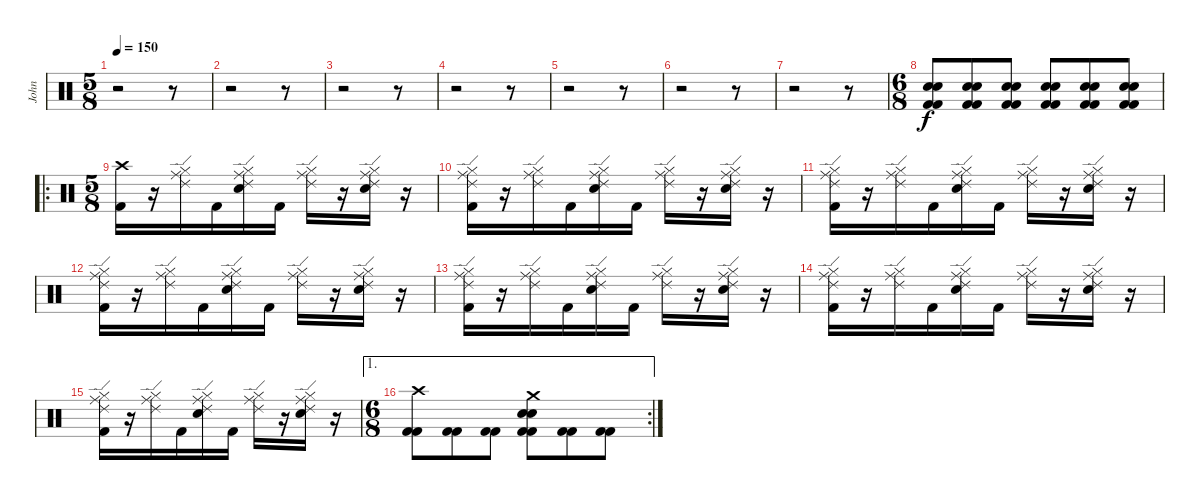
\track ("John" "John") {instrument percussion}
\staff {score}
\articulation defaults
\ts (5 8)
\tempo 150
\clef neutral
\ks c
r.2{dy f} r.8 |
r.2 r.8 |
r.2 r.8 |
r.2 r.8 |
r.2 r.8 |
r.2 r.8 |
r.2 r.8 |
\ts (6 8)
("Electric Snare (hit)" "Electric Snare (hit)" "Kick (hit) 2" "Kick (hit) 2").8 ("Electric Snare (hit)" "Electric Snare (hit)" "Kick (hit) 2" "Kick (hit) 2").8 ("Electric Snare (hit)" "Electric Snare (hit)" "Kick (hit) 2" "Kick (hit) 2").8 ("Electric Snare (hit)" "Electric Snare (hit)" "Kick (hit) 2" "Kick (hit) 2").8 ("Electric Snare (hit)" "Electric Snare (hit)" "Kick (hit) 2" "Kick (hit) 2").8 ("Electric Snare (hit)" "Electric Snare (hit)" "Kick (hit) 2" "Kick (hit) 2").8 |
\ro
\ts (5 8)
("Crash high (hit)" "Kick (hit) 2").16 r.16 ("Ride (middle)" "Ride (edge) 2" "Hi-Hat (closed)").16 "Kick (hit) 2".16 ("Ride (middle)" "Electric Snare (hit)" "Ride (edge) 2" "Hi-Hat (closed)").16 "Kick (hit) 2".16 ("Ride (middle)" "Ride (edge) 2" "Hi-Hat (closed)").16 r.16 ("Ride (middle)" "Electric Snare (hit)" "Ride (edge) 2" "Hi-Hat (closed)").16 r.16 |
("Ride (middle)" "Kick (hit) 2" "Ride (edge) 2" "Hi-Hat (closed)").16 r.16 ("Ride (middle)" "Ride (edge) 2" "Hi-Hat (closed)").16 "Kick (hit) 2".16 ("Ride (middle)" "Electric Snare (hit)" "Ride (edge) 2" "Hi-Hat (closed)").16 "Kick (hit) 2".16 ("Ride (middle)" "Ride (edge) 2" "Hi-Hat (closed)").16 r.16 ("Ride (middle)" "Electric Snare (hit)" "Ride (edge) 2" "Hi-Hat (closed)").16 r.16 |
("Ride (middle)" "Kick (hit) 2" "Ride (edge) 2" "Hi-Hat (closed)").16 r.16 ("Ride (middle)" "Ride (edge) 2" "Hi-Hat (closed)").16 "Kick (hit) 2".16 ("Ride (middle)" "Electric Snare (hit)" "Ride (edge) 2" "Hi-Hat (closed)").16 "Kick (hit) 2".16 ("Ride (middle)" "Ride (edge) 2" "Hi-Hat (closed)").16 r.16 ("Ride (middle)" "Electric Snare (hit)" "Ride (edge) 2" "Hi-Hat (closed)").16 r.16 |
("Ride (middle)" "Kick (hit) 2" "Ride (edge) 2" "Hi-Hat (closed)").16 r.16 ("Ride (middle)" "Ride (edge) 2" "Hi-Hat (closed)").16 "Kick (hit) 2".16 ("Ride (middle)" "Electric Snare (hit)" "Ride (edge) 2" "Hi-Hat (closed)").16 "Kick (hit) 2".16 ("Ride (middle)" "Ride (edge) 2" "Hi-Hat (closed)").16 r.16 ("Ride (middle)" "Electric Snare (hit)" "Ride (edge) 2" "Hi-Hat (closed)").16 r.16 |
("Ride (middle)" "Kick (hit) 2" "Ride (edge) 2" "Hi-Hat (closed)").16 r.16 ("Ride (middle)" "Ride (edge) 2" "Hi-Hat (closed)").16 "Kick (hit) 2".16 ("Ride (middle)" "Electric Snare (hit)" "Ride (edge) 2" "Hi-Hat (closed)").16 "Kick (hit) 2".16 ("Ride (middle)" "Ride (edge) 2" "Hi-Hat (closed)").16 r.16 ("Ride (middle)" "Electric Snare (hit)" "Ride (edge) 2" "Hi-Hat (closed)").16 r.16 |
("Ride (middle)" "Kick (hit) 2" "Ride (edge) 2" "Hi-Hat (closed)").16 r.16 ("Ride (middle)" "Ride (edge) 2" "Hi-Hat (closed)").16 "Kick (hit) 2".16 ("Ride (middle)" "Electric Snare (hit)" "Ride (edge) 2" "Hi-Hat (closed)").16 "Kick (hit) 2".16 ("Ride (middle)" "Ride (edge) 2" "Hi-Hat (closed)").16 r.16 ("Ride (middle)" "Electric Snare (hit)" "Ride (edge) 2" "Hi-Hat (closed)").16 r.16 |
("Ride (middle)" "Kick (hit) 2" "Ride (edge) 2" "Hi-Hat (closed)").16 r.16 ("Ride (middle)" "Ride (edge) 2" "Hi-Hat (closed)").16 "Kick (hit) 2".16 ("Ride (middle)" "Electric Snare (hit)" "Ride (edge) 2" "Hi-Hat (closed)").16 "Kick (hit) 2".16 ("Ride (middle)" "Ride (edge) 2" "Hi-Hat (closed)").16 r.16 ("Ride (middle)" "Electric Snare (hit)" "Ride (edge) 2" "Hi-Hat (closed)").16 r.16 |
\ae 1
\rc 2
\ts (6 8)
("Crash high (hit)" "Kick (hit) 2" "Kick (hit) 2").8 ("Kick (hit) 2" "Kick (hit) 2").8 ("Kick (hit) 2" "Kick (hit) 2").8 ("Crash medium (hit)" "Electric Snare (hit)" "Electric Snare (hit)" "Kick (hit) 2" "Kick (hit) 2").8 ("Kick (hit) 2" "Kick (hit) 2").8 ("Kick (hit) 2" "Kick (hit) 2").8
